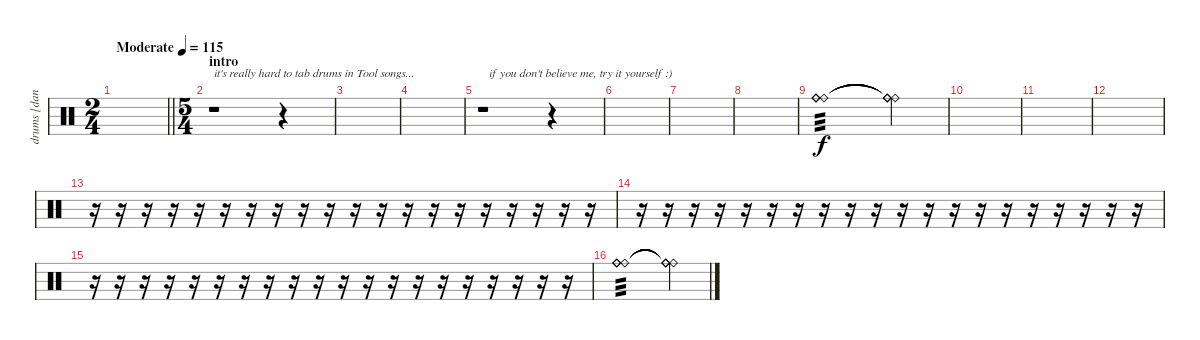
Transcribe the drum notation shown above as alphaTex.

\track ("drums [danny carey]" "drums [dan") {instrument percussion}
\staff {score}
\articulation defaults
\ts (2 4)
\tempo (115 "Moderate")
\clef neutral
\barLineRight lightlight
\ks c
|
\ts (5 4)
\section ("" "intro")
r.1{txt "it's really hard to tab drums in Tool songs..."} r.4 |
|
|
r.1{txt "  if you don't believe me, try it yourself :)"} r.4 |
|
|
|
("Ride (bell)" "Ride (bell)" "Ride (bell)" "Ride (bell)").1{tp 3 volume 10} ("Ride (bell)"{t} "Ride (bell)"{t} "Ride (bell)"{t} "Ride (bell)"{t}).4 |
|
|
|
r.16 r.16 r.16 r.16 r.16 r.16 r.16 r.16 r.16 r.16 r.16 r.16 r.16 r.16 r.16 r.16 r.16 r.16 r.16 r.16 |
r.16 r.16 r.16 r.16 r.16 r.16 r.16 r.16 r.16 r.16 r.16 r.16 r.16 r.16 r.16 r.16 r.16 r.16 r.16 r.16 |
r.16 r.16 r.16 r.16 r.16 r.16 r.16 r.16 r.16 r.16 r.16 r.16 r.16 r.16 r.16 r.16 r.16 r.16 r.16 r.16{volume 7} |
("Ride (bell)" "Ride (bell)" "Ride (bell)" "Ride (bell)").1{tp 3 volume 7} ("Ride (bell)"{t} "Ride (bell)"{t} "Ride (bell)"{t} "Ride (bell)"{t}).4{volume 14}
